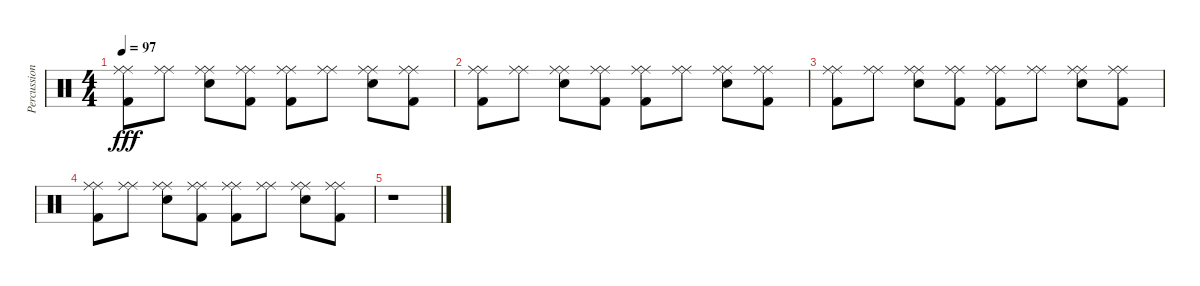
\track ("Percussions" "Percussion") {instrument percussion}
\staff {score}
\articulation defaults
\ts (4 4)
\tempo 97
\clef neutral
\ks c
("Ride (middle)" "Ride (middle)" "Kick (hit) 2").8{dy fff} ("Ride (middle)" "Ride (middle)").8 ("Ride (middle)" "Ride (middle)" "Electric Snare (hit)").8 ("Ride (middle)" "Ride (middle)" "Kick (hit) 2").8 ("Ride (middle)" "Ride (middle)" "Kick (hit) 2").8 ("Ride (middle)" "Ride (middle)").8 ("Ride (middle)" "Ride (middle)" "Electric Snare (hit)").8 ("Ride (middle)" "Ride (middle)" "Kick (hit) 2").8 |
("Ride (middle)" "Ride (middle)" "Kick (hit) 2").8 ("Ride (middle)" "Ride (middle)").8 ("Ride (middle)" "Ride (middle)" "Electric Snare (hit)").8 ("Ride (middle)" "Ride (middle)" "Kick (hit) 2").8 ("Ride (middle)" "Ride (middle)" "Kick (hit) 2").8 ("Ride (middle)" "Ride (middle)").8 ("Ride (middle)" "Ride (middle)" "Electric Snare (hit)").8 ("Ride (middle)" "Ride (middle)" "Kick (hit) 2").8 |
("Ride (middle)" "Ride (middle)" "Kick (hit) 2").8 ("Ride (middle)" "Ride (middle)").8 ("Ride (middle)" "Ride (middle)" "Electric Snare (hit)").8 ("Ride (middle)" "Ride (middle)" "Kick (hit) 2").8 ("Ride (middle)" "Ride (middle)" "Kick (hit) 2").8 ("Ride (middle)" "Ride (middle)").8 ("Ride (middle)" "Ride (middle)" "Electric Snare (hit)").8 ("Ride (middle)" "Ride (middle)" "Kick (hit) 2").8 |
("Ride (middle)" "Ride (middle)" "Kick (hit) 2").8 ("Ride (middle)" "Ride (middle)").8 ("Ride (middle)" "Ride (middle)" "Electric Snare (hit)").8 ("Ride (middle)" "Ride (middle)" "Kick (hit) 2").8 ("Ride (middle)" "Ride (middle)" "Kick (hit) 2").8 ("Ride (middle)" "Ride (middle)").8 ("Ride (middle)" "Ride (middle)" "Electric Snare (hit)").8 ("Ride (middle)" "Ride (middle)" "Kick (hit) 2").8 |
r.1
